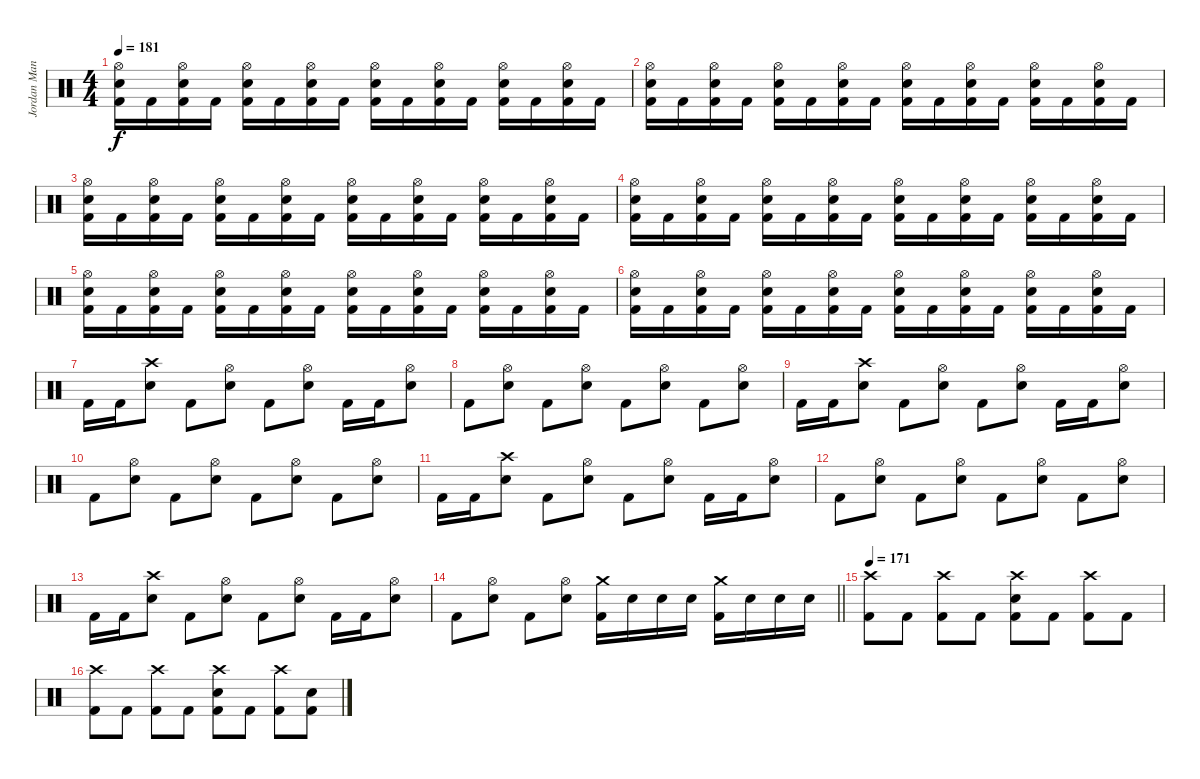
\track ("Jordan Mancino" "Jordan Man") {instrument percussion}
\staff {score}
\articulation defaults
\ts (4 4)
\tempo 181
\clef neutral
\ks c
("Hi-Hat (open)" "Electric Snare (hit)" "Kick (hit) 2").16{dy f} "Kick (hit) 2".16 ("Hi-Hat (open)" "Electric Snare (hit)" "Kick (hit) 2").16 "Kick (hit) 2".16 ("Hi-Hat (open)" "Electric Snare (hit)" "Kick (hit) 2").16 "Kick (hit) 2".16 ("Hi-Hat (open)" "Electric Snare (hit)" "Kick (hit) 2").16 "Kick (hit) 2".16 ("Hi-Hat (open)" "Electric Snare (hit)" "Kick (hit) 2").16 "Kick (hit) 2".16 ("Hi-Hat (open)" "Electric Snare (hit)" "Kick (hit) 2").16 "Kick (hit) 2".16 ("Hi-Hat (open)" "Electric Snare (hit)" "Kick (hit) 2").16 "Kick (hit) 2".16 ("Hi-Hat (open)" "Electric Snare (hit)" "Kick (hit) 2").16 "Kick (hit) 2".16 |
("Hi-Hat (open)" "Electric Snare (hit)" "Kick (hit) 2").16 "Kick (hit) 2".16 ("Hi-Hat (open)" "Electric Snare (hit)" "Kick (hit) 2").16 "Kick (hit) 2".16 ("Hi-Hat (open)" "Electric Snare (hit)" "Kick (hit) 2").16 "Kick (hit) 2".16 ("Hi-Hat (open)" "Electric Snare (hit)" "Kick (hit) 2").16 "Kick (hit) 2".16 ("Hi-Hat (open)" "Electric Snare (hit)" "Kick (hit) 2").16 "Kick (hit) 2".16 ("Hi-Hat (open)" "Electric Snare (hit)" "Kick (hit) 2").16 "Kick (hit) 2".16 ("Hi-Hat (open)" "Electric Snare (hit)" "Kick (hit) 2").16 "Kick (hit) 2".16 ("Hi-Hat (open)" "Electric Snare (hit)" "Kick (hit) 2").16 "Kick (hit) 2".16 |
("Hi-Hat (open)" "Electric Snare (hit)" "Kick (hit) 2").16 "Kick (hit) 2".16 ("Hi-Hat (open)" "Electric Snare (hit)" "Kick (hit) 2").16 "Kick (hit) 2".16 ("Hi-Hat (open)" "Electric Snare (hit)" "Kick (hit) 2").16 "Kick (hit) 2".16 ("Hi-Hat (open)" "Electric Snare (hit)" "Kick (hit) 2").16 "Kick (hit) 2".16 ("Hi-Hat (open)" "Electric Snare (hit)" "Kick (hit) 2").16 "Kick (hit) 2".16 ("Hi-Hat (open)" "Electric Snare (hit)" "Kick (hit) 2").16 "Kick (hit) 2".16 ("Hi-Hat (open)" "Electric Snare (hit)" "Kick (hit) 2").16 "Kick (hit) 2".16 ("Hi-Hat (open)" "Electric Snare (hit)" "Kick (hit) 2").16 "Kick (hit) 2".16 |
("Hi-Hat (open)" "Electric Snare (hit)" "Kick (hit) 2").16 "Kick (hit) 2".16 ("Hi-Hat (open)" "Electric Snare (hit)" "Kick (hit) 2").16 "Kick (hit) 2".16 ("Hi-Hat (open)" "Electric Snare (hit)" "Kick (hit) 2").16 "Kick (hit) 2".16 ("Hi-Hat (open)" "Electric Snare (hit)" "Kick (hit) 2").16 "Kick (hit) 2".16 ("Hi-Hat (open)" "Electric Snare (hit)" "Kick (hit) 2").16 "Kick (hit) 2".16 ("Hi-Hat (open)" "Electric Snare (hit)" "Kick (hit) 2").16 "Kick (hit) 2".16 ("Hi-Hat (open)" "Electric Snare (hit)" "Kick (hit) 2").16 "Kick (hit) 2".16 ("Hi-Hat (open)" "Electric Snare (hit)" "Kick (hit) 2").16 "Kick (hit) 2".16 |
("Hi-Hat (open)" "Electric Snare (hit)" "Kick (hit) 2").16 "Kick (hit) 2".16 ("Hi-Hat (open)" "Electric Snare (hit)" "Kick (hit) 2").16 "Kick (hit) 2".16 ("Hi-Hat (open)" "Electric Snare (hit)" "Kick (hit) 2").16 "Kick (hit) 2".16 ("Hi-Hat (open)" "Electric Snare (hit)" "Kick (hit) 2").16 "Kick (hit) 2".16 ("Hi-Hat (open)" "Electric Snare (hit)" "Kick (hit) 2").16 "Kick (hit) 2".16 ("Hi-Hat (open)" "Electric Snare (hit)" "Kick (hit) 2").16 "Kick (hit) 2".16 ("Hi-Hat (open)" "Electric Snare (hit)" "Kick (hit) 2").16 "Kick (hit) 2".16 ("Hi-Hat (open)" "Electric Snare (hit)" "Kick (hit) 2").16 "Kick (hit) 2".16 |
("Hi-Hat (open)" "Electric Snare (hit)" "Kick (hit) 2").16 "Kick (hit) 2".16 ("Hi-Hat (open)" "Electric Snare (hit)" "Kick (hit) 2").16 "Kick (hit) 2".16 ("Hi-Hat (open)" "Electric Snare (hit)" "Kick (hit) 2").16 "Kick (hit) 2".16 ("Hi-Hat (open)" "Electric Snare (hit)" "Kick (hit) 2").16 "Kick (hit) 2".16 ("Hi-Hat (open)" "Electric Snare (hit)" "Kick (hit) 2").16 "Kick (hit) 2".16 ("Hi-Hat (open)" "Electric Snare (hit)" "Kick (hit) 2").16 "Kick (hit) 2".16 ("Hi-Hat (open)" "Electric Snare (hit)" "Kick (hit) 2").16 "Kick (hit) 2".16 ("Hi-Hat (open)" "Electric Snare (hit)" "Kick (hit) 2").16 "Kick (hit) 2".16 |
"Kick (hit) 2".16 "Kick (hit) 2".16 ("Crash high (hit)" "Electric Snare (hit)").8 "Kick (hit) 2".8 ("Hi-Hat (open)" "Electric Snare (hit)").8 "Kick (hit) 2".8 ("Hi-Hat (open)" "Electric Snare (hit)").8 "Kick (hit) 2".16 "Kick (hit) 2".16 ("Hi-Hat (open)" "Electric Snare (hit)").8 |
"Kick (hit) 2".8 ("Hi-Hat (open)" "Electric Snare (hit)").8 "Kick (hit) 2".8 ("Hi-Hat (open)" "Electric Snare (hit)").8 "Kick (hit) 2".8 ("Hi-Hat (open)" "Electric Snare (hit)").8 "Kick (hit) 2".8 ("Hi-Hat (open)" "Electric Snare (hit)").8 |
"Kick (hit) 2".16 "Kick (hit) 2".16 ("Crash high (hit)" "Electric Snare (hit)").8 "Kick (hit) 2".8 ("Hi-Hat (open)" "Electric Snare (hit)").8 "Kick (hit) 2".8 ("Hi-Hat (open)" "Electric Snare (hit)").8 "Kick (hit) 2".16 "Kick (hit) 2".16 ("Hi-Hat (open)" "Electric Snare (hit)").8 |
"Kick (hit) 2".8 ("Hi-Hat (open)" "Electric Snare (hit)").8 "Kick (hit) 2".8 ("Hi-Hat (open)" "Electric Snare (hit)").8 "Kick (hit) 2".8 ("Hi-Hat (open)" "Electric Snare (hit)").8 "Kick (hit) 2".8 ("Hi-Hat (open)" "Electric Snare (hit)").8 |
"Kick (hit) 2".16 "Kick (hit) 2".16 ("Crash high (hit)" "Electric Snare (hit)").8 "Kick (hit) 2".8 ("Hi-Hat (open)" "Electric Snare (hit)").8 "Kick (hit) 2".8 ("Hi-Hat (open)" "Electric Snare (hit)").8 "Kick (hit) 2".16 "Kick (hit) 2".16 ("Hi-Hat (open)" "Electric Snare (hit)").8 |
"Kick (hit) 2".8 ("Hi-Hat (open)" "Electric Snare (hit)").8 "Kick (hit) 2".8 ("Hi-Hat (open)" "Electric Snare (hit)").8 "Kick (hit) 2".8 ("Hi-Hat (open)" "Electric Snare (hit)").8 "Kick (hit) 2".8 ("Hi-Hat (open)" "Electric Snare (hit)").8 |
"Kick (hit) 2".16 "Kick (hit) 2".16 ("Crash high (hit)" "Electric Snare (hit)").8 "Kick (hit) 2".8 ("Hi-Hat (open)" "Electric Snare (hit)").8 "Kick (hit) 2".8 ("Hi-Hat (open)" "Electric Snare (hit)").8 "Kick (hit) 2".16 "Kick (hit) 2".16 ("Hi-Hat (open)" "Electric Snare (hit)").8 |
\barLineRight lightlight "Kick (hit) 2".8
("Hi-Hat (open)" "Electric Snare (hit)").8 "Kick (hit) 2".8 ("Hi-Hat (open)" "Electric Snare (hit)").8 ("Crash medium (hit)" "Kick (hit) 2").16 "Electric Snare (hit)".16 "Electric Snare (hit)".16 "Electric Snare (hit)".16 ("Crash medium (hit)" "Kick (hit) 2").16 "Electric Snare (hit)".16 "Electric Snare (hit)".16 "Electric Snare (hit)".16 |
\section ("" "")
\tempo 171
("Crash high (hit)" "Kick (hit) 2").8 "Kick (hit) 2".8 ("Crash high (hit)" "Kick (hit) 2").8 "Kick (hit) 2".8 ("Crash high (hit)" "Electric Snare (hit)" "Kick (hit) 2").8 "Kick (hit) 2".8 ("Crash high (hit)" "Kick (hit) 2").8 "Kick (hit) 2".8 |
("Crash high (hit)" "Kick (hit) 2").8 "Kick (hit) 2".8 ("Crash high (hit)" "Kick (hit) 2").8 "Kick (hit) 2".8 ("Crash high (hit)" "Electric Snare (hit)" "Kick (hit) 2").8 "Kick (hit) 2".8 ("Crash high (hit)" "Kick (hit) 2").8 ("Electric Snare (hit)" "Kick (hit) 2").8
